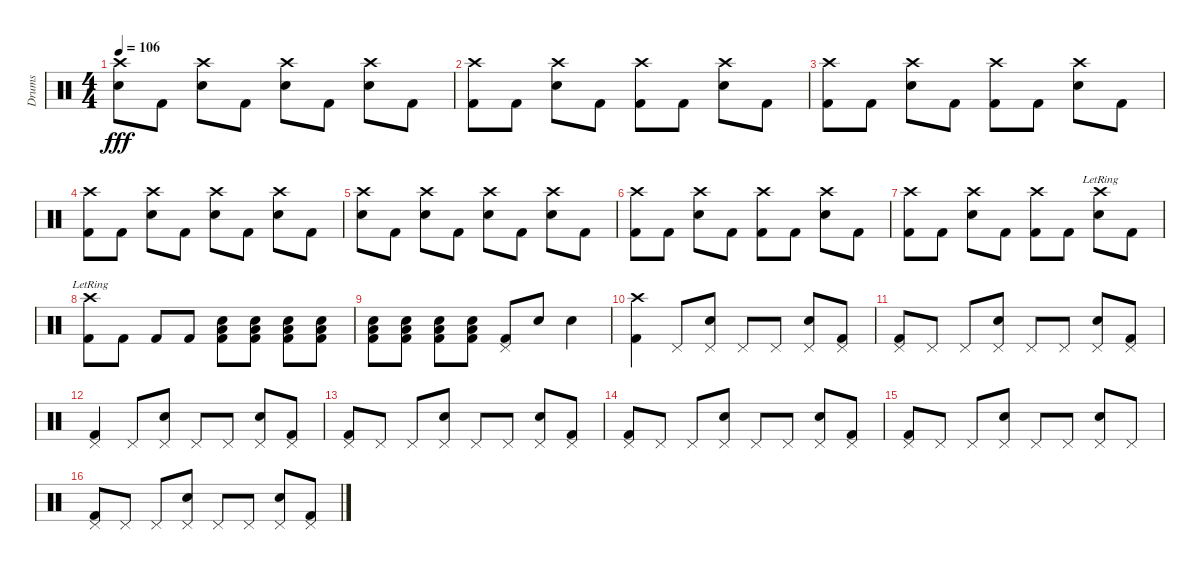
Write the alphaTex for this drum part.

\track ("Drums" "Drums") {instrument percussion}
\staff {score}
\articulation defaults
\ts (4 4)
\tempo 106
\clef neutral
\ks c
("Crash high (hit)" "Snare (hit) 2").8{dy fff} "Kick (hit) 2".8 ("Crash high (hit)" "Snare (hit) 2").8 "Kick (hit) 2".8 ("Crash high (hit)" "Snare (hit) 2").8 "Kick (hit) 2".8 ("Crash high (hit)" "Snare (hit) 2").8 "Kick (hit) 2".8 |
("Crash high (hit)" "Kick (hit) 2").8 "Kick (hit) 2".8 ("Crash high (hit)" "Snare (hit) 2").8 "Kick (hit) 2".8 ("Crash high (hit)" "Kick (hit) 2").8 "Kick (hit) 2".8 ("Crash high (hit)" "Snare (hit) 2").8 "Kick (hit) 2".8 |
("Crash high (hit)" "Kick (hit) 2").8 "Kick (hit) 2".8 ("Crash high (hit)" "Snare (hit) 2").8 "Kick (hit) 2".8 ("Crash high (hit)" "Kick (hit) 2").8 "Kick (hit) 2".8 ("Crash high (hit)" "Snare (hit) 2").8 "Kick (hit) 2".8 |
("Crash high (hit)" "Kick (hit) 2").8 "Kick (hit) 2".8 ("Crash high (hit)" "Snare (hit) 2").8 "Kick (hit) 2".8 ("Crash high (hit)" "Snare (hit) 2").8 "Kick (hit) 2".8 ("Crash high (hit)" "Snare (hit) 2").8 "Kick (hit) 2".8 |
("Crash high (hit)" "Snare (hit) 2").8 "Kick (hit) 2".8 ("Crash high (hit)" "Snare (hit) 2").8 "Kick (hit) 2".8 ("Crash high (hit)" "Snare (hit) 2").8 "Kick (hit) 2".8 ("Crash high (hit)" "Snare (hit) 2").8 "Kick (hit) 2".8 |
("Crash high (hit)" "Kick (hit) 2").8 "Kick (hit) 2".8 ("Crash high (hit)" "Snare (hit) 2").8 "Kick (hit) 2".8 ("Crash high (hit)" "Kick (hit) 2").8 "Kick (hit) 2".8 ("Crash high (hit)" "Snare (hit) 2").8 "Kick (hit) 2".8 |
("Crash high (hit)" "Kick (hit) 2").8 "Kick (hit) 2".8 ("Crash high (hit)" "Snare (hit) 2").8 "Kick (hit) 2".8 ("Crash high (hit)" "Kick (hit) 2").8 "Kick (hit) 2".8 ("Crash high (hit)"{lr} "Snare (hit) 2").8 "Kick (hit) 2".8 |
("Crash high (hit)"{lr} "Kick (hit) 2").8 "Kick (hit) 2".8 "Kick (hit) 2".8 "Kick (hit) 2".8 ("Snare (hit) 2" "Low Tom (hit)" "Kick (hit) 2").8 ("Snare (hit) 2" "Low Tom (hit)" "Kick (hit) 2").8 ("Snare (hit) 2" "Low Tom (hit)" "Kick (hit) 2").8 ("Snare (hit) 2" "Low Tom (hit)" "Kick (hit) 2").8 |
("Snare (hit) 2" "Low Tom (hit)" "Kick (hit) 2").8 ("Snare (hit) 2" "Low Tom (hit)" "Kick (hit) 2").8 ("Snare (hit) 2" "Low Tom (hit)" "Kick (hit) 2").8 ("Snare (hit) 2" "Low Tom (hit)" "Kick (hit) 2").8 ("Pedal Hi-Hat (hit)" "Kick (hit) 2").8 "Snare (hit) 2".8 "Snare (hit) 2".4 |
("Crash high (hit)" "Kick (hit) 2").4 "Pedal Hi-Hat (hit)".8 ("Pedal Hi-Hat (hit)" "Snare (hit) 2").8 "Pedal Hi-Hat (hit)".8 "Pedal Hi-Hat (hit)".8 ("Pedal Hi-Hat (hit)" "Snare (hit) 2").8 ("Pedal Hi-Hat (hit)" "Kick (hit) 2").8 |
("Pedal Hi-Hat (hit)" "Kick (hit) 2").8 "Pedal Hi-Hat (hit)".8 "Pedal Hi-Hat (hit)".8 ("Pedal Hi-Hat (hit)" "Snare (hit) 2").8 "Pedal Hi-Hat (hit)".8 "Pedal Hi-Hat (hit)".8 ("Pedal Hi-Hat (hit)" "Snare (hit) 2").8 ("Pedal Hi-Hat (hit)" "Kick (hit) 2").8 |
("Pedal Hi-Hat (hit)" "Kick (hit) 2").4 "Pedal Hi-Hat (hit)".8 ("Pedal Hi-Hat (hit)" "Snare (hit) 2").8 "Pedal Hi-Hat (hit)".8 "Pedal Hi-Hat (hit)".8 ("Pedal Hi-Hat (hit)" "Snare (hit) 2").8 ("Pedal Hi-Hat (hit)" "Kick (hit) 2").8 |
("Pedal Hi-Hat (hit)" "Kick (hit) 2").8 "Pedal Hi-Hat (hit)".8 "Pedal Hi-Hat (hit)".8 ("Pedal Hi-Hat (hit)" "Snare (hit) 2").8 "Pedal Hi-Hat (hit)".8 "Pedal Hi-Hat (hit)".8 ("Pedal Hi-Hat (hit)" "Snare (hit) 2").8 ("Pedal Hi-Hat (hit)" "Kick (hit) 2").8 |
("Pedal Hi-Hat (hit)" "Kick (hit) 2").8 "Pedal Hi-Hat (hit)".8 "Pedal Hi-Hat (hit)".8 ("Pedal Hi-Hat (hit)" "Snare (hit) 2").8 "Pedal Hi-Hat (hit)".8 "Pedal Hi-Hat (hit)".8 ("Pedal Hi-Hat (hit)" "Snare (hit) 2").8 ("Pedal Hi-Hat (hit)" "Kick (hit) 2").8 |
("Pedal Hi-Hat (hit)" "Kick (hit) 2").8 "Pedal Hi-Hat (hit)".8 "Pedal Hi-Hat (hit)".8 ("Pedal Hi-Hat (hit)" "Snare (hit) 2").8 "Pedal Hi-Hat (hit)".8 "Pedal Hi-Hat (hit)".8 ("Pedal Hi-Hat (hit)" "Snare (hit) 2").8 "Pedal Hi-Hat (hit)".8 |
("Pedal Hi-Hat (hit)" "Kick (hit) 2").8 "Pedal Hi-Hat (hit)".8 "Pedal Hi-Hat (hit)".8 ("Pedal Hi-Hat (hit)" "Snare (hit) 2").8 "Pedal Hi-Hat (hit)".8 "Pedal Hi-Hat (hit)".8 ("Pedal Hi-Hat (hit)" "Snare (hit) 2").8 ("Pedal Hi-Hat (hit)" "Kick (hit) 2").8
